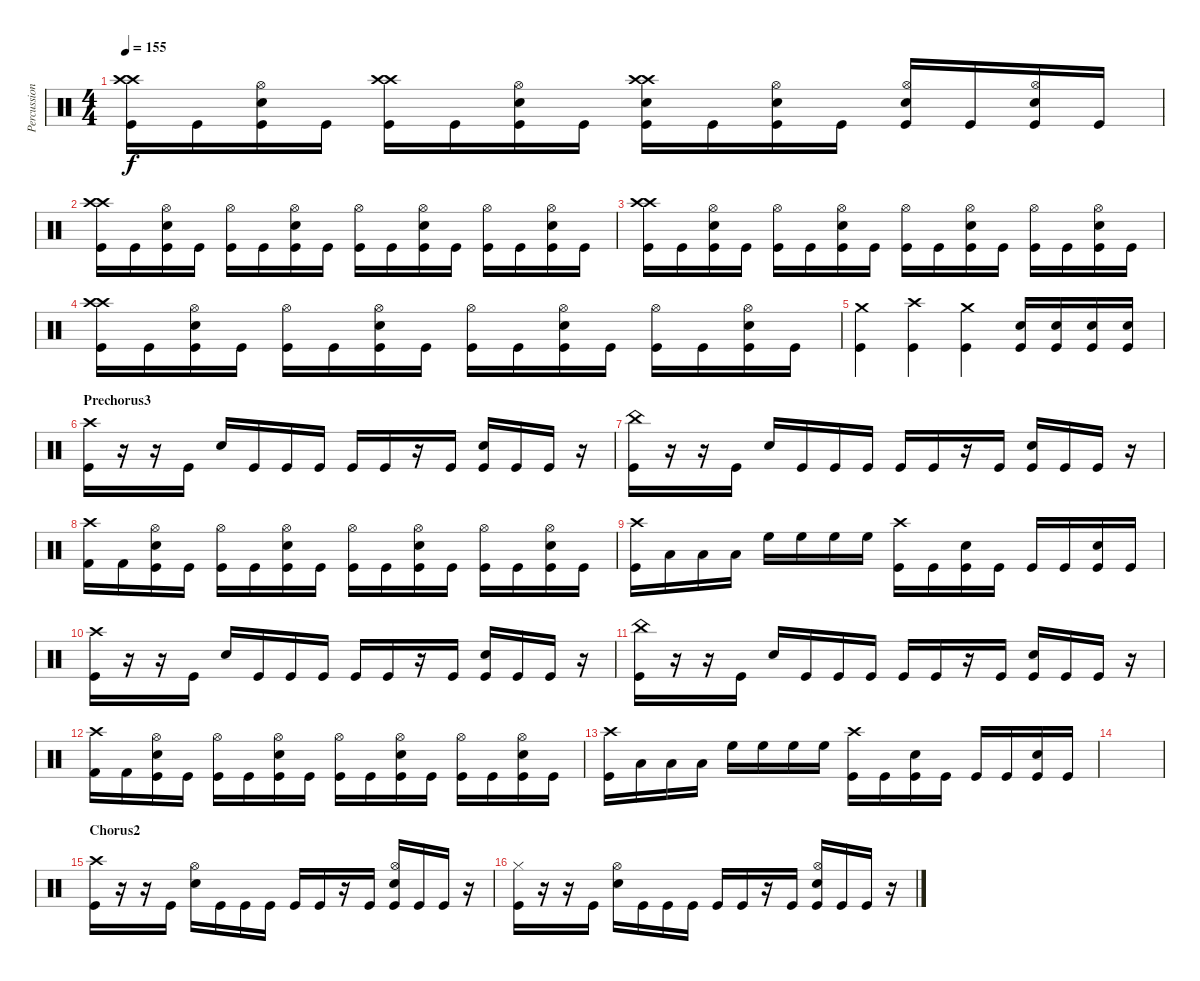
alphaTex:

\track ("Percussion" "Percussion") {instrument percussion}
\staff {score}
\articulation defaults
\ts (4 4)
\tempo 155
\clef neutral
\ks c
("Crash high (hit)" "Crash high (hit)" "Kick (hit)").16{dy f} "Kick (hit)".16 ("Hi-Hat (open)" "Electric Snare (hit)" "Kick (hit)").16 "Kick (hit)".16 ("Crash high (hit)" "Crash high (hit)" "Kick (hit)").16 "Kick (hit)".16 ("Hi-Hat (open)" "Electric Snare (hit)" "Kick (hit)").16 "Kick (hit)".16 ("Crash high (hit)" "Crash high (hit)" "Electric Snare (hit)" "Kick (hit)").16 "Kick (hit)".16 ("Hi-Hat (open)" "Electric Snare (hit)" "Kick (hit)").16 "Kick (hit)".16 ("Hi-Hat (open)" "Electric Snare (hit)" "Kick (hit)").16 "Kick (hit)".16 ("Hi-Hat (open)" "Electric Snare (hit)" "Kick (hit)").16 "Kick (hit)".16 |
("Crash high (hit)" "Crash high (hit)" "Kick (hit)").16 "Kick (hit)".16 ("Hi-Hat (open)" "Electric Snare (hit)" "Kick (hit)").16 "Kick (hit)".16 ("Hi-Hat (open)" "Kick (hit)").16 "Kick (hit)".16 ("Hi-Hat (open)" "Electric Snare (hit)" "Kick (hit)").16 "Kick (hit)".16 ("Hi-Hat (open)" "Kick (hit)").16 "Kick (hit)".16 ("Hi-Hat (open)" "Electric Snare (hit)" "Kick (hit)").16 "Kick (hit)".16 ("Hi-Hat (open)" "Kick (hit)").16 "Kick (hit)".16 ("Hi-Hat (open)" "Electric Snare (hit)" "Kick (hit)").16 "Kick (hit)".16 |
("Crash high (hit)" "Crash high (hit)" "Kick (hit)").16 "Kick (hit)".16 ("Hi-Hat (open)" "Electric Snare (hit)" "Kick (hit)").16 "Kick (hit)".16 ("Hi-Hat (open)" "Kick (hit)").16 "Kick (hit)".16 ("Hi-Hat (open)" "Electric Snare (hit)" "Kick (hit)").16 "Kick (hit)".16 ("Hi-Hat (open)" "Kick (hit)").16 "Kick (hit)".16 ("Hi-Hat (open)" "Electric Snare (hit)" "Kick (hit)").16 "Kick (hit)".16 ("Hi-Hat (open)" "Kick (hit)").16 "Kick (hit)".16 ("Hi-Hat (open)" "Electric Snare (hit)" "Kick (hit)").16 "Kick (hit)".16 |
("Crash high (hit)" "Crash high (hit)" "Kick (hit)").16 "Kick (hit)".16 ("Hi-Hat (open)" "Electric Snare (hit)" "Kick (hit)").16 "Kick (hit)".16 ("Hi-Hat (open)" "Kick (hit)").16 "Kick (hit)".16 ("Hi-Hat (open)" "Electric Snare (hit)" "Kick (hit)").16 "Kick (hit)".16 ("Hi-Hat (open)" "Kick (hit)").16 "Kick (hit)".16 ("Hi-Hat (open)" "Electric Snare (hit)" "Kick (hit)").16 "Kick (hit)".16 ("Hi-Hat (open)" "Kick (hit)").16 "Kick (hit)".16 ("Hi-Hat (open)" "Electric Snare (hit)" "Kick (hit)").16 "Kick (hit)".16 |
("Crash medium (hit)" "Kick (hit)").4 ("Crash high (hit)" "Kick (hit)").4 ("Crash medium (hit)" "Kick (hit)").4 ("Electric Snare (hit)" "Kick (hit)").16 ("Electric Snare (hit)" "Kick (hit)").16 ("Electric Snare (hit)" "Kick (hit)").16 ("Electric Snare (hit)" "Kick (hit)").16 |
\section ("" "Prechorus3")
("Crash high (hit)" "Kick (hit)").16 r.16 r.16 "Kick (hit)".16 "Electric Snare (hit)".16 "Kick (hit)".16 "Kick (hit)".16 "Kick (hit)".16 "Kick (hit)".16 "Kick (hit)".16 r.16 "Kick (hit)".16 ("Electric Snare (hit)" "Kick (hit)").16 "Kick (hit)".16 "Kick (hit)".16 r.16 |
("China (hit)" "Kick (hit)").16 r.16 r.16 "Kick (hit)".16 "Electric Snare (hit)".16 "Kick (hit)".16 "Kick (hit)".16 "Kick (hit)".16 "Kick (hit)".16 "Kick (hit)".16 r.16 "Kick (hit)".16 ("Electric Snare (hit)" "Kick (hit)").16 "Kick (hit)".16 "Kick (hit)".16 r.16 |
("Crash high (hit)" "Kick (hit) 2").16 "Kick (hit) 2".16 ("Hi-Hat (open)" "Electric Snare (hit)" "Kick (hit)").16 "Kick (hit)".16 ("Hi-Hat (open)" "Kick (hit)").16 "Kick (hit)".16 ("Hi-Hat (open)" "Electric Snare (hit)" "Kick (hit)").16 "Kick (hit)".16 ("Hi-Hat (open)" "Kick (hit)").16 "Kick (hit)".16 ("Hi-Hat (open)" "Electric Snare (hit)" "Kick (hit)").16 "Kick (hit)".16 ("Hi-Hat (open)" "Kick (hit)").16 "Kick (hit)".16 ("Hi-Hat (open)" "Electric Snare (hit)" "Kick (hit)").16 "Kick (hit)".16 |
("Crash high (hit)" "Kick (hit)").16 "Low Tom (hit)".16 "Low Tom (hit)".16 "Low Tom (hit)".16 "High Floor Tom (hit)".16 "High Floor Tom (hit)".16 "High Floor Tom (hit)".16 "High Floor Tom (hit)".16 ("Crash high (hit)" "Kick (hit)").16 "Kick (hit)".16 ("Electric Snare (hit)" "Kick (hit)").16 "Kick (hit)".16 "Kick (hit)".16 "Kick (hit)".16 ("Electric Snare (hit)" "Kick (hit)").16 "Kick (hit)".16 |
("Crash high (hit)" "Kick (hit)").16 r.16 r.16 "Kick (hit)".16 "Electric Snare (hit)".16 "Kick (hit)".16 "Kick (hit)".16 "Kick (hit)".16 "Kick (hit)".16 "Kick (hit)".16 r.16 "Kick (hit)".16 ("Electric Snare (hit)" "Kick (hit)").16 "Kick (hit)".16 "Kick (hit)".16 r.16 |
("China (hit)" "Kick (hit)").16 r.16 r.16 "Kick (hit)".16 "Electric Snare (hit)".16 "Kick (hit)".16 "Kick (hit)".16 "Kick (hit)".16 "Kick (hit)".16 "Kick (hit)".16 r.16 "Kick (hit)".16 ("Electric Snare (hit)" "Kick (hit)").16 "Kick (hit)".16 "Kick (hit)".16 r.16 |
("Crash high (hit)" "Kick (hit) 2").16 "Kick (hit) 2".16 ("Hi-Hat (open)" "Electric Snare (hit)" "Kick (hit)").16 "Kick (hit)".16 ("Hi-Hat (open)" "Kick (hit)").16 "Kick (hit)".16 ("Hi-Hat (open)" "Electric Snare (hit)" "Kick (hit)").16 "Kick (hit)".16 ("Hi-Hat (open)" "Kick (hit)").16 "Kick (hit)".16 ("Hi-Hat (open)" "Electric Snare (hit)" "Kick (hit)").16 "Kick (hit)".16 ("Hi-Hat (open)" "Kick (hit)").16 "Kick (hit)".16 ("Hi-Hat (open)" "Electric Snare (hit)" "Kick (hit)").16 "Kick (hit)".16 |
("Crash high (hit)" "Kick (hit)").16 "Low Tom (hit)".16 "Low Tom (hit)".16 "Low Tom (hit)".16 "High Floor Tom (hit)".16 "High Floor Tom (hit)".16 "High Floor Tom (hit)".16 "High Floor Tom (hit)".16 ("Crash high (hit)" "Kick (hit)").16 "Kick (hit)".16 ("Electric Snare (hit)" "Kick (hit)").16 "Kick (hit)".16 "Kick (hit)".16 "Kick (hit)".16 ("Electric Snare (hit)" "Kick (hit)").16 "Kick (hit)".16 |
|
\section ("" "Chorus2")
("Crash high (hit)" "Kick (hit)").16 r.16 r.16 "Kick (hit)".16 ("Hi-Hat (open)" "Electric Snare (hit)").16 "Kick (hit)".16 "Kick (hit)".16 "Kick (hit)".16 "Kick (hit)".16 "Kick (hit)".16 r.16 "Kick (hit)".16 ("Hi-Hat (open)" "Electric Snare (hit)" "Kick (hit)").16 "Kick (hit)".16 "Kick (hit)".16 r.16 |
("Hi-Hat (closed)" "Kick (hit)").16 r.16 r.16 "Kick (hit)".16 ("Hi-Hat (open)" "Electric Snare (hit)").16 "Kick (hit)".16 "Kick (hit)".16 "Kick (hit)".16 "Kick (hit)".16 "Kick (hit)".16 r.16 "Kick (hit)".16 ("Hi-Hat (open)" "Electric Snare (hit)" "Kick (hit)").16 "Kick (hit)".16 "Kick (hit)".16 r.16
